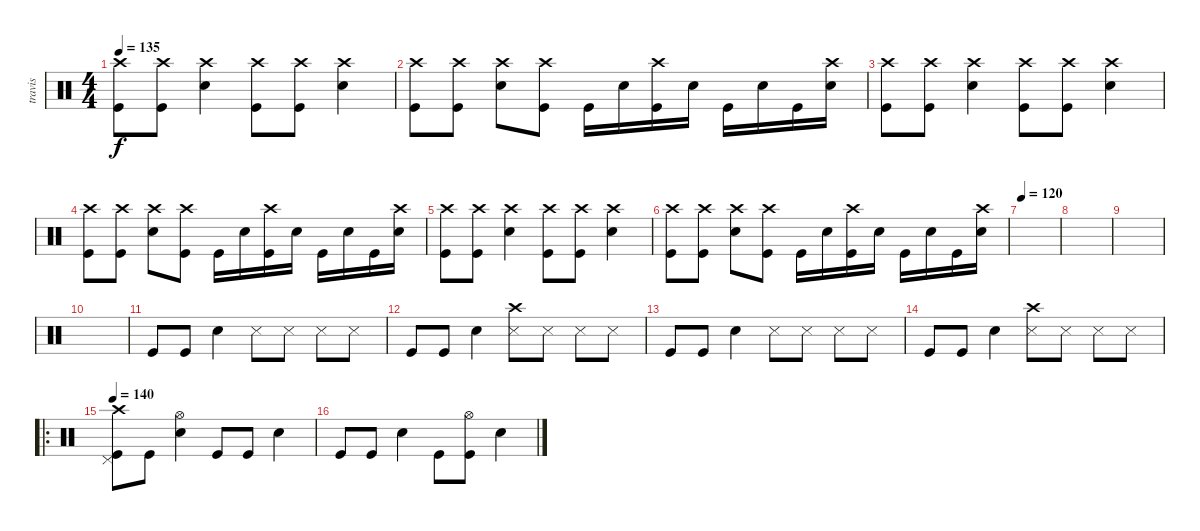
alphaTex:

\track ("travis" "travis") {instrument percussion}
\staff {score}
\articulation defaults
\ts (4 4)
\tempo 135
\clef neutral
\ks c
("Crash high (hit)" "Kick (hit)").8{dy f} ("Crash high (hit)" "Kick (hit)").8 ("Crash high (hit)" "Electric Snare (hit)").4 ("Crash high (hit)" "Kick (hit)").8 ("Crash high (hit)" "Kick (hit)").8 ("Crash high (hit)" "Electric Snare (hit)").4 |
("Crash high (hit)" "Kick (hit)").8 ("Crash high (hit)" "Kick (hit)").8 ("Crash high (hit)" "Electric Snare (hit)").8 ("Crash high (hit)" "Kick (hit)").8 "Kick (hit)".16 "Electric Snare (hit)".16 ("Crash high (hit)" "Kick (hit)").16 "Electric Snare (hit)".16 "Kick (hit)".16 "Electric Snare (hit)".16 "Kick (hit)".16 ("Crash high (hit)" "Electric Snare (hit)").16 |
("Crash high (hit)" "Kick (hit)").8 ("Crash high (hit)" "Kick (hit)").8 ("Crash high (hit)" "Electric Snare (hit)").4 ("Crash high (hit)" "Kick (hit)").8 ("Crash high (hit)" "Kick (hit)").8 ("Crash high (hit)" "Electric Snare (hit)").4 |
("Crash high (hit)" "Kick (hit)").8 ("Crash high (hit)" "Kick (hit)").8 ("Crash high (hit)" "Electric Snare (hit)").8 ("Crash high (hit)" "Kick (hit)").8 "Kick (hit)".16 "Electric Snare (hit)".16 ("Crash high (hit)" "Kick (hit)").16 "Electric Snare (hit)".16 "Kick (hit)".16 "Electric Snare (hit)".16 "Kick (hit)".16 ("Crash high (hit)" "Electric Snare (hit)").16 |
("Crash high (hit)" "Kick (hit)").8 ("Crash high (hit)" "Kick (hit)").8 ("Crash high (hit)" "Electric Snare (hit)").4 ("Crash high (hit)" "Kick (hit)").8 ("Crash high (hit)" "Kick (hit)").8 ("Crash high (hit)" "Electric Snare (hit)").4 |
("Crash high (hit)" "Kick (hit)").8 ("Crash high (hit)" "Kick (hit)").8 ("Crash high (hit)" "Electric Snare (hit)").8 ("Crash high (hit)" "Kick (hit)").8 "Kick (hit)".16 "Electric Snare (hit)".16 ("Crash high (hit)" "Kick (hit)").16 "Electric Snare (hit)".16 "Kick (hit)".16 "Electric Snare (hit)".16 "Kick (hit)".16 ("Crash high (hit)" "Electric Snare (hit)").16 |
\tempo 130
\tempo 120
|
|
|
|
"Kick (hit)".8 "Kick (hit)".8 "Electric Snare (hit)".4 "Snare (side stick) 3".8 "Snare (side stick) 3".8 "Snare (side stick) 3".8 "Snare (side stick) 3".8 |
"Kick (hit)".8 "Kick (hit)".8 "Electric Snare (hit)".4 ("Crash high (hit)" "Snare (side stick) 3").8 "Snare (side stick) 3".8 "Snare (side stick) 3".8 "Snare (side stick) 3".8 |
"Kick (hit)".8 "Kick (hit)".8 "Electric Snare (hit)".4 "Snare (side stick) 3".8 "Snare (side stick) 3".8 "Snare (side stick) 3".8 "Snare (side stick) 3".8 |
"Kick (hit)".8 "Kick (hit)".8 "Electric Snare (hit)".4 ("Crash high (hit)" "Snare (side stick) 3").8 "Snare (side stick) 3".8 "Snare (side stick) 3".8 "Snare (side stick) 3".8 |
\ro
\tempo 140
("Pedal Hi-Hat (hit)" "Crash high (hit)" "Kick (hit)").8 "Kick (hit)".8 ("Hi-Hat (open)" "Electric Snare (hit)").4 "Kick (hit)".8 "Kick (hit)".8 "Electric Snare (hit)".4 |
"Kick (hit)".8 "Kick (hit)".8 "Electric Snare (hit)".4 "Kick (hit)".8 ("Hi-Hat (open)" "Kick (hit)").8 "Electric Snare (hit)".4
